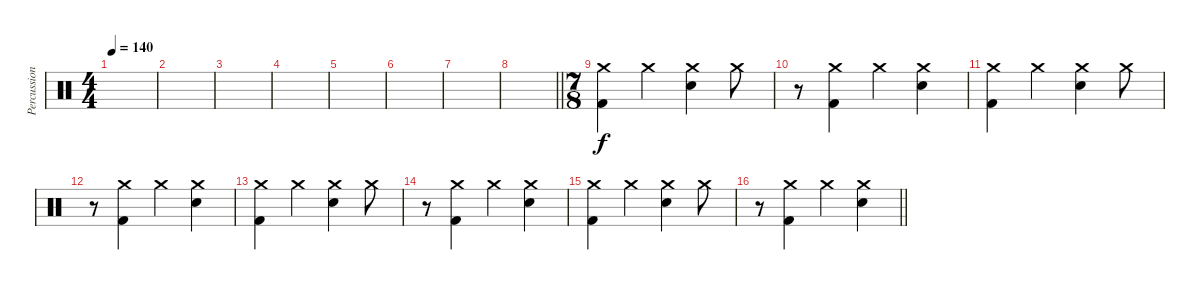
\track ("Percussion" "Percussion") {instrument percussion}
\staff {score}
\articulation defaults
\ts (4 4)
\tempo 140
\clef neutral
\ks c
|
|
|
|
|
|
|
\barLineRight lightlight
|
\ts (7 8)
\section ("" "")
("Crash medium (hit)" "Kick (hit) 2").4{dy f} "Crash medium (hit)".4 ("Crash medium (hit)" "Electric Snare (hit)").4 "Crash medium (hit)".8 |
r.8 ("Crash medium (hit)" "Kick (hit) 2").4 "Crash medium (hit)".4 ("Crash medium (hit)" "Electric Snare (hit)").4 |
("Crash medium (hit)" "Kick (hit) 2").4 "Crash medium (hit)".4 ("Crash medium (hit)" "Electric Snare (hit)").4 "Crash medium (hit)".8 |
r.8 ("Crash medium (hit)" "Kick (hit) 2").4 "Crash medium (hit)".4 ("Crash medium (hit)" "Electric Snare (hit)").4 |
("Crash medium (hit)" "Kick (hit) 2").4 "Crash medium (hit)".4 ("Crash medium (hit)" "Electric Snare (hit)").4 "Crash medium (hit)".8 |
r.8 ("Crash medium (hit)" "Kick (hit) 2").4 "Crash medium (hit)".4 ("Crash medium (hit)" "Electric Snare (hit)").4 |
("Crash medium (hit)" "Kick (hit) 2").4 "Crash medium (hit)".4 ("Crash medium (hit)" "Electric Snare (hit)").4 "Crash medium (hit)".8 |
\barLineRight lightlight
r.8 ("Crash medium (hit)" "Kick (hit) 2").4 "Crash medium (hit)".4 ("Crash medium (hit)" "Electric Snare (hit)").4
